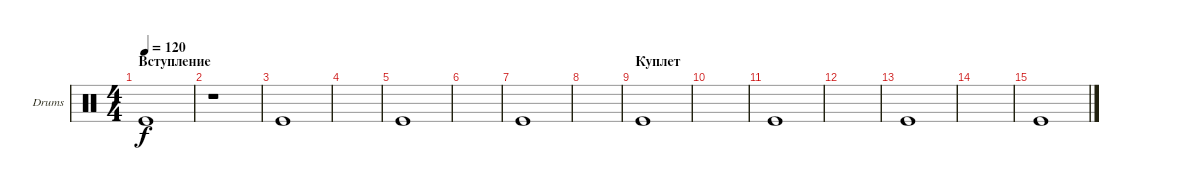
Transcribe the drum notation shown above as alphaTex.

\defaultSystemsLayout 4
\bracketExtendMode groupsimilarinstruments
\firstSystemTrackNameOrientation horizontal
\otherSystemsTrackNameOrientation horizontal
\track ("Drum" "Drums") {instrument percussion}
\staff {score}
\articulation defaults
\ts (4 4)
\section ("" "Вступление")
\tempo 120
\clef neutral
\scale
0.472222
\ks c "Kick (hit)".1{dy f}
|
\scale
0.263889 r.1 |
\scale
0.263889 "Kick (hit)".1 |
|
"Kick (hit)".1 |
|
"Kick (hit)".1 |
|
\section ("" "Куплет")
"Kick (hit)".1 |
|
"Kick (hit)".1 |
|
"Kick (hit)".1 |
|
"Kick (hit)".1
